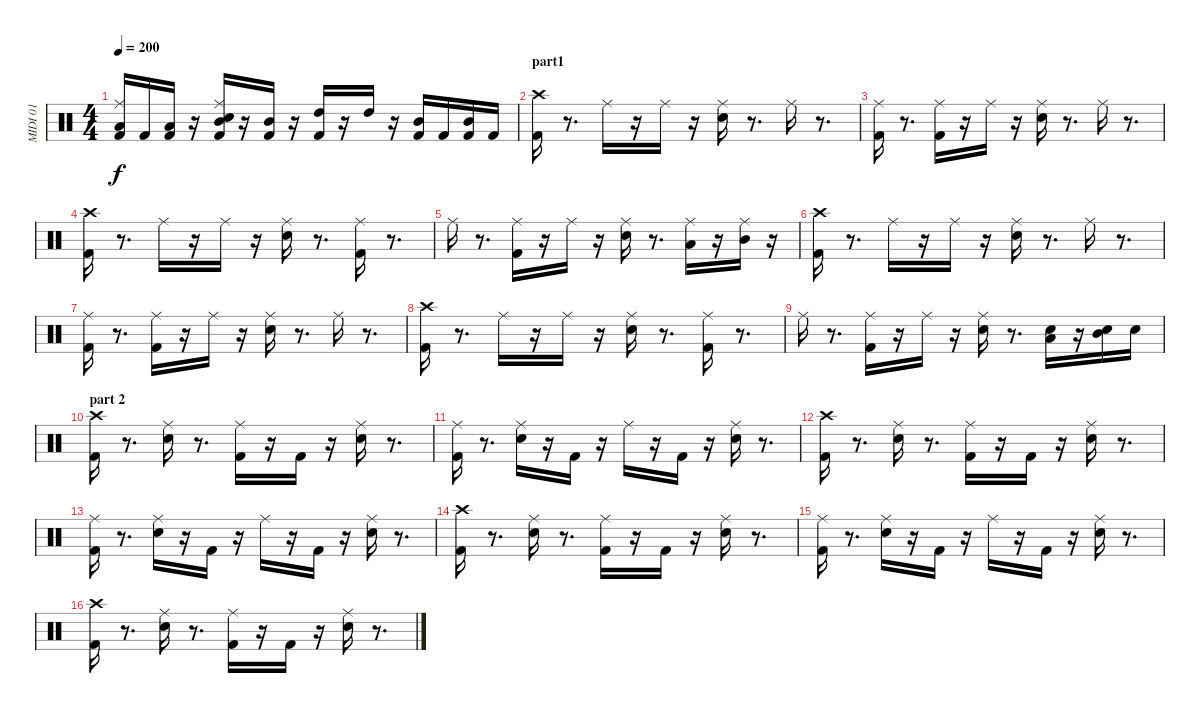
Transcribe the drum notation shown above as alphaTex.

\track ("MIDI 01" "MIDI 01") {instrument percussion}
\staff {score}
\articulation defaults
\ts (4 4)
\tempo 200
\clef neutral
\ks c
("Kick (hit) 2" "Ride (middle)" "Low Tom (hit)").16{dy f} "Kick (hit) 2".16 ("Kick (hit) 2" "Low Tom (hit)").16 r.16 ("Snare (hit) 2" "Ride (middle)" "Kick (hit) 2" "Mid Tom (hit)").16 r.16 ("Kick (hit) 2" "Mid Tom (hit)").16 r.16 ("Kick (hit) 2" "High Tom (hit)").16 r.16 "High Tom (hit)".16 r.16 ("Kick (hit) 2" "Mid Tom (hit)").16 "Kick (hit) 2".16 ("Kick (hit) 2" "Mid Tom (hit)").16 "Kick (hit) 2".16 |
\section ("" "part1")
("Kick (hit) 2" "Crash high (hit)").16 r.8{d} "Ride (middle)".16 r.16 "Ride (middle)".16 r.16 ("Ride (middle)" "Snare (hit) 2").16 r.8{d} "Ride (middle)".16 r.8{d} |
("Kick (hit) 2" "Ride (middle)").16 r.8{d} ("Ride (middle)" "Kick (hit) 2").16 r.16 "Ride (middle)".16 r.16 ("Snare (hit) 2" "Ride (middle)").16 r.8{d} "Ride (middle)".16 r.8{d} |
("Kick (hit) 2" "Crash high (hit)").16 r.8{d} "Ride (middle)".16 r.16 "Ride (middle)".16 r.16 ("Ride (middle)" "Snare (hit) 2").16 r.8{d} ("Ride (middle)" "Kick (hit) 2").16 r.8{d} |
"Ride (middle)".16 r.8{d} ("Ride (middle)" "Kick (hit) 2").16 r.16 "Ride (middle)".16 r.16 ("Ride (middle)" "Snare (hit) 2").16 r.8{d} ("Ride (middle)" "Low Tom (hit)").16 r.16 ("Ride (middle)" "Mid Tom (hit)").16 r.16 |
("Kick (hit) 2" "Crash high (hit)").16 r.8{d} "Ride (middle)".16 r.16 "Ride (middle)".16 r.16 ("Ride (middle)" "Snare (hit) 2").16 r.8{d} "Ride (middle)".16 r.8{d} |
("Kick (hit) 2" "Ride (middle)").16 r.8{d} ("Ride (middle)" "Kick (hit) 2").16 r.16 "Ride (middle)".16 r.16 ("Snare (hit) 2" "Ride (middle)").16 r.8{d} "Ride (middle)".16 r.8{d} |
("Kick (hit) 2" "Crash high (hit)").16 r.8{d} "Ride (middle)".16 r.16 "Ride (middle)".16 r.16 ("Ride (middle)" "Snare (hit) 2").16 r.8{d} ("Ride (middle)" "Kick (hit) 2").16 r.8{d} |
"Ride (middle)".16 r.8{d} ("Ride (middle)" "Kick (hit) 2").16 r.16 "Ride (middle)".16 r.16 ("Ride (middle)" "Snare (hit) 2").16 r.8{d} ("Low Tom (hit)" "Snare (hit) 2").16 r.16 ("Mid Tom (hit)" "Snare (hit) 2").16 "Snare (hit) 2".16 |
\section ("" "part 2")
("Kick (hit) 2" "Crash high (hit)").16 r.8{d} ("Snare (hit) 2" "Ride (middle)").16 r.8{d} ("Kick (hit) 2" "Ride (middle)").16 r.16 "Kick (hit) 2".16 r.16 ("Snare (hit) 2" "Ride (middle)").16 r.8{d} |
("Kick (hit) 2" "Ride (middle)").16 r.8{d} ("Snare (hit) 2" "Ride (middle)").16 r.16 "Kick (hit) 2".16 r.16 "Ride (middle)".16 r.16 "Kick (hit) 2".16 r.16 ("Snare (hit) 2" "Ride (middle)").16 r.8{d} |
("Kick (hit) 2" "Crash high (hit)").16 r.8{d} ("Snare (hit) 2" "Ride (middle)").16 r.8{d} ("Kick (hit) 2" "Ride (middle)").16 r.16 "Kick (hit) 2".16 r.16 ("Snare (hit) 2" "Ride (middle)").16 r.8{d} |
("Kick (hit) 2" "Ride (middle)").16 r.8{d} ("Snare (hit) 2" "Ride (middle)").16 r.16 "Kick (hit) 2".16 r.16 "Ride (middle)".16 r.16 "Kick (hit) 2".16 r.16 ("Snare (hit) 2" "Ride (middle)").16 r.8{d} |
("Kick (hit) 2" "Crash high (hit)").16 r.8{d} ("Snare (hit) 2" "Ride (middle)").16 r.8{d} ("Kick (hit) 2" "Ride (middle)").16 r.16 "Kick (hit) 2".16 r.16 ("Snare (hit) 2" "Ride (middle)").16 r.8{d} |
("Kick (hit) 2" "Ride (middle)").16 r.8{d} ("Snare (hit) 2" "Ride (middle)").16 r.16 "Kick (hit) 2".16 r.16 "Ride (middle)".16 r.16 "Kick (hit) 2".16 r.16 ("Snare (hit) 2" "Ride (middle)").16 r.8{d} |
("Kick (hit) 2" "Crash high (hit)").16 r.8{d} ("Snare (hit) 2" "Ride (middle)").16 r.8{d} ("Kick (hit) 2" "Ride (middle)").16 r.16 "Kick (hit) 2".16 r.16 ("Snare (hit) 2" "Ride (middle)").16 r.8{d}
